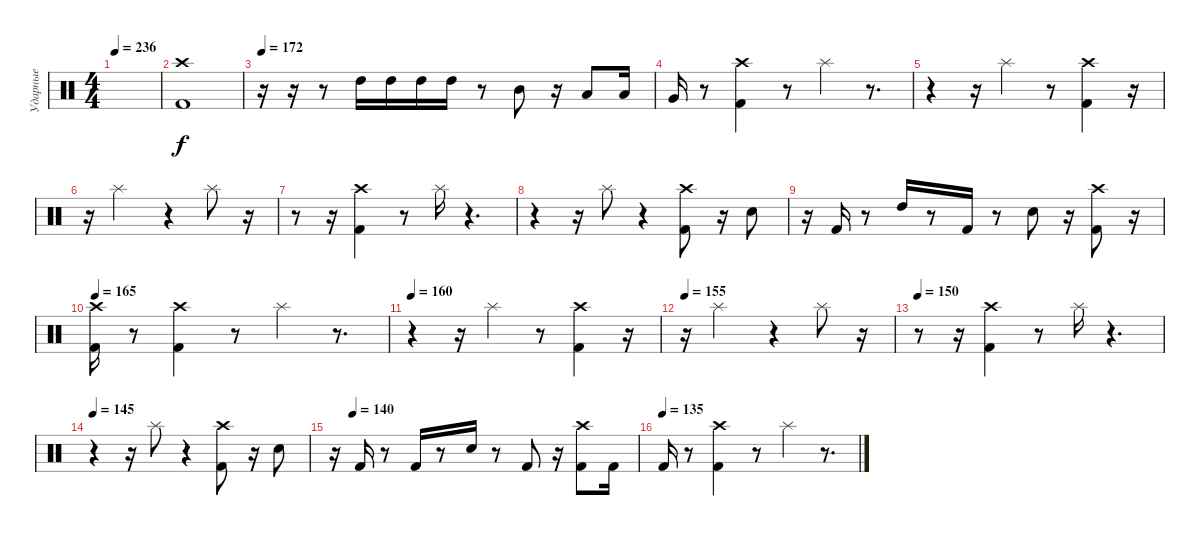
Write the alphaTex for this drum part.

\track ("Ударные" "Ударные") {instrument percussion}
\staff {score}
\articulation defaults
\ts (4 4)
\tempo 236
\clef neutral
\ks c
|
("Crash high (hit)" "Kick (hit) 2").1 |
\tempo 172
r.16 r.16 r.8 "High Tom (hit)".16 "High Tom (hit)".16 "High Tom (hit)".16 "High Tom (hit)".16 r.8 "Mid Tom (hit)".8 r.16 "Low Tom (hit)".8 "Low Tom (hit)".16 |
"Very Low Tom (hit)".16 r.8 ("Crash high (hit)" "Kick (hit) 2").4 r.8 "Splash (hit)".4 r.8{d} |
r.4 r.16 "Splash (hit)".4 r.8 ("Crash high (hit)" "Kick (hit) 2").4 r.16 |
r.16 "Splash (hit)".2 r.4 "Splash (hit)".8 r.16 |
r.8 r.16 ("Crash high (hit)" "Kick (hit) 2").4 r.8 "Splash (hit)".16 r.4{d} |
r.4 r.16 "Splash (hit)".8 r.4 ("Crash high (hit)" "Kick (hit) 2").8 r.16 "Electric Snare (hit)".8 |
r.16 "Kick (hit) 2".16 r.8 "High Tom (hit)".16 r.8 "Kick (hit) 2".16 r.8 "Electric Snare (hit)".8 r.16 ("Crash high (hit)" "Kick (hit) 2").8 r.16 |
\tempo 165
("Crash high (hit)" "Kick (hit) 2").16 r.8 ("Crash high (hit)" "Kick (hit) 2").4 r.8 "Splash (hit)".4 r.8{d} |
\tempo 160
r.4 r.16 "Splash (hit)".4 r.8 ("Crash high (hit)" "Kick (hit) 2").4 r.16 |
\tempo 155
r.16 "Splash (hit)".2 r.4 "Splash (hit)".8 r.16 |
\tempo 150
r.8 r.16 ("Crash high (hit)" "Kick (hit) 2").4 r.8 "Splash (hit)".16 r.4{d} |
\tempo 145
r.4 r.16 "Splash (hit)".8 r.4 ("Crash high (hit)" "Kick (hit) 2").8 r.16 "Electric Snare (hit)".8 |
\tempo (140 0.0625)
r.16 "Kick (hit) 2".16 r.8 "Kick (hit) 2".16 r.8 "Electric Snare (hit)".16 r.8 "Kick (hit) 2".8 r.16 ("Crash high (hit)" "Kick (hit) 2").8 "Kick (hit) 2".16 |
\tempo (135)
"Kick (hit) 2".16 r.8 ("Crash high (hit)" "Kick (hit) 2").4 r.8 "Splash (hit)".4 r.8{d}
